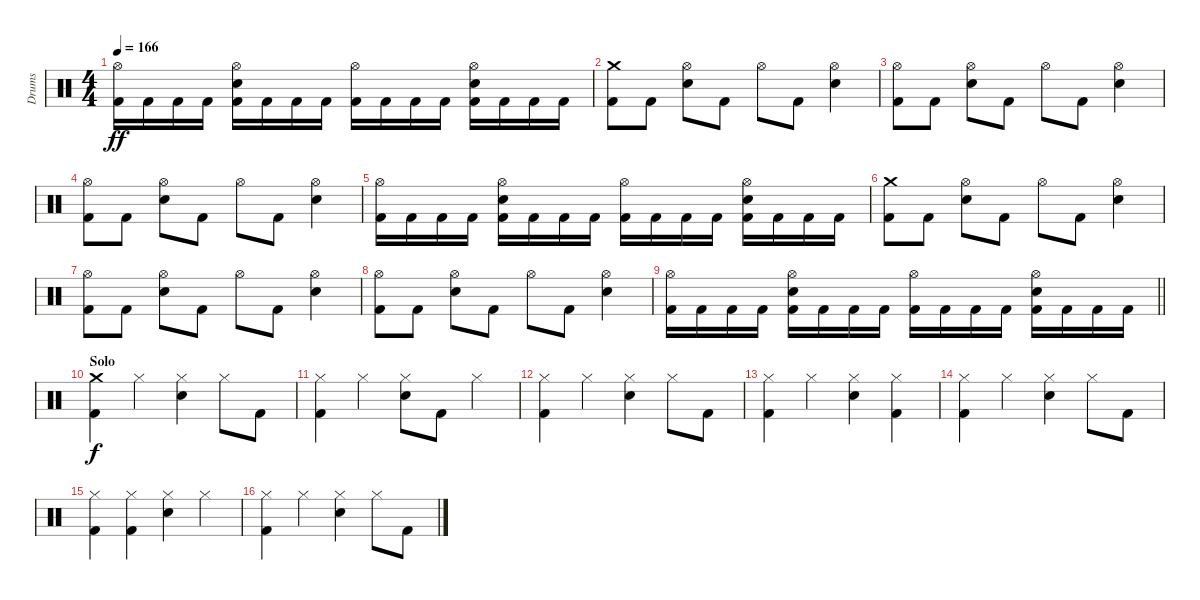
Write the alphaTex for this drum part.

\track ("Drums" "Drums") {instrument percussion}
\staff {score}
\articulation defaults
\ts (4 4)
\tempo 166
\clef neutral
\ks c
("Hi-Hat (open)" "Kick (hit) 2").16{dy ff} "Kick (hit) 2".16 "Kick (hit) 2".16 "Kick (hit) 2".16 ("Hi-Hat (open)" "Snare (hit) 2" "Kick (hit) 2").16 "Kick (hit) 2".16 "Kick (hit) 2".16 "Kick (hit) 2".16 ("Hi-Hat (open)" "Kick (hit) 2").16 "Kick (hit) 2".16 "Kick (hit) 2".16 "Kick (hit) 2".16 ("Hi-Hat (open)" "Snare (hit) 2" "Kick (hit) 2").16 "Kick (hit) 2".16 "Kick (hit) 2".16 "Kick (hit) 2".16 |
("Crash medium (hit)" "Kick (hit) 2").8 "Kick (hit) 2".8 ("Hi-Hat (open)" "Snare (hit) 2").8 "Kick (hit) 2".8 "Hi-Hat (open)".8 "Kick (hit) 2".8 ("Hi-Hat (open)" "Snare (hit) 2").4 |
("Hi-Hat (open)" "Kick (hit) 2").8 "Kick (hit) 2".8 ("Hi-Hat (open)" "Snare (hit) 2").8 "Kick (hit) 2".8 "Hi-Hat (open)".8 "Kick (hit) 2".8 ("Hi-Hat (open)" "Snare (hit) 2").4 |
("Hi-Hat (open)" "Kick (hit) 2").8 "Kick (hit) 2".8 ("Hi-Hat (open)" "Snare (hit) 2").8 "Kick (hit) 2".8 "Hi-Hat (open)".8 "Kick (hit) 2".8 ("Hi-Hat (open)" "Snare (hit) 2").4 |
("Hi-Hat (open)" "Kick (hit) 2").16 "Kick (hit) 2".16 "Kick (hit) 2".16 "Kick (hit) 2".16 ("Hi-Hat (open)" "Snare (hit) 2" "Kick (hit) 2").16 "Kick (hit) 2".16 "Kick (hit) 2".16 "Kick (hit) 2".16 ("Hi-Hat (open)" "Kick (hit) 2").16 "Kick (hit) 2".16 "Kick (hit) 2".16 "Kick (hit) 2".16 ("Hi-Hat (open)" "Snare (hit) 2" "Kick (hit) 2").16 "Kick (hit) 2".16 "Kick (hit) 2".16 "Kick (hit) 2".16 |
("Crash medium (hit)" "Kick (hit) 2").8 "Kick (hit) 2".8 ("Hi-Hat (open)" "Snare (hit) 2").8 "Kick (hit) 2".8 "Hi-Hat (open)".8 "Kick (hit) 2".8 ("Hi-Hat (open)" "Snare (hit) 2").4 |
("Hi-Hat (open)" "Kick (hit) 2").8 "Kick (hit) 2".8 ("Hi-Hat (open)" "Snare (hit) 2").8 "Kick (hit) 2".8 "Hi-Hat (open)".8 "Kick (hit) 2".8 ("Hi-Hat (open)" "Snare (hit) 2").4 |
("Hi-Hat (open)" "Kick (hit) 2").8 "Kick (hit) 2".8 ("Hi-Hat (open)" "Snare (hit) 2").8 "Kick (hit) 2".8 "Hi-Hat (open)".8 "Kick (hit) 2".8 ("Hi-Hat (open)" "Snare (hit) 2").4 |
\barLineRight lightlight
("Hi-Hat (open)" "Kick (hit) 2").16 "Kick (hit) 2".16 "Kick (hit) 2".16 "Kick (hit) 2".16 ("Hi-Hat (open)" "Snare (hit) 2" "Kick (hit) 2").16 "Kick (hit) 2".16 "Kick (hit) 2".16 "Kick (hit) 2".16 ("Hi-Hat (open)" "Kick (hit) 2").16 "Kick (hit) 2".16 "Kick (hit) 2".16 "Kick (hit) 2".16 ("Hi-Hat (open)" "Snare (hit) 2" "Kick (hit) 2").16 "Kick (hit) 2".16 "Kick (hit) 2".16 "Kick (hit) 2".16 |
\section ("" "Solo")
("Crash medium (hit)" "Kick (hit) 2").4{dy f} "Hi-Hat (closed)".4 ("Hi-Hat (closed)" "Snare (hit) 2").4 "Hi-Hat (closed)".8 "Kick (hit) 2".8 |
("Hi-Hat (closed)" "Kick (hit) 2").4 "Hi-Hat (closed)".4 ("Hi-Hat (closed)" "Snare (hit) 2").8 "Kick (hit) 2".8 "Hi-Hat (closed)".4 |
("Hi-Hat (closed)" "Kick (hit) 2").4 "Hi-Hat (closed)".4 ("Hi-Hat (closed)" "Snare (hit) 2").4 "Hi-Hat (closed)".8 "Kick (hit) 2".8 |
("Hi-Hat (closed)" "Kick (hit) 2").4 "Hi-Hat (closed)".4 ("Hi-Hat (closed)" "Snare (hit) 2").4 ("Hi-Hat (closed)" "Kick (hit) 2").4 |
("Hi-Hat (closed)" "Kick (hit) 2").4 "Hi-Hat (closed)".4 ("Hi-Hat (closed)" "Snare (hit) 2").4 "Hi-Hat (closed)".8 "Kick (hit) 2".8 |
("Hi-Hat (closed)" "Kick (hit) 2").4 ("Hi-Hat (closed)" "Kick (hit) 2").4 ("Hi-Hat (closed)" "Snare (hit) 2").4 "Hi-Hat (closed)".4 |
("Hi-Hat (closed)" "Kick (hit) 2").4 "Hi-Hat (closed)".4 ("Hi-Hat (closed)" "Snare (hit) 2").4 "Hi-Hat (closed)".8 "Kick (hit) 2".8
